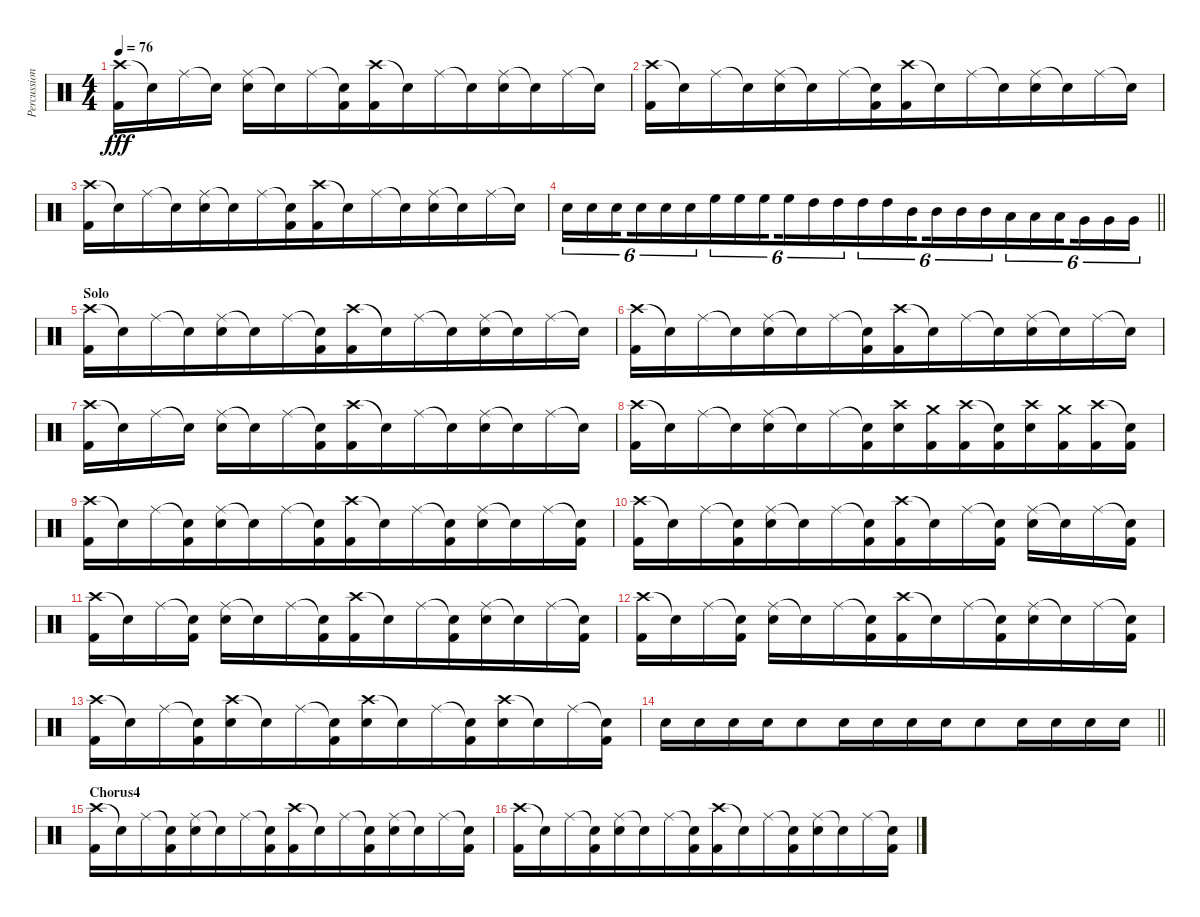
\track ("Percussion" "Percussion") {instrument percussion}
\staff {score}
\articulation defaults
\ts (4 4)
\tempo 76
\clef neutral
\ks c
("Crash high (hit)" "Kick (hit) 2").16{dy fff beam merge} "Snare (hit)"{t}.16{beam merge} "Ride (middle)".16{beam merge} "Snare (hit)"{t}.16 ("Ride (middle)" "Snare (hit) 2").16{beam merge} "Snare (hit)"{t}.16{beam merge} "Ride (middle)".16{beam merge} ("Snare (hit)"{t} "Kick (hit) 2").16{beam merge} ("Crash high (hit)" "Kick (hit) 2").16 "Snare (hit)"{t}.16{beam merge} "Ride (middle)".16{beam merge} "Snare (hit)"{t}.16{beam merge} ("Ride (middle)" "Snare (hit) 2").16{beam merge} "Snare (hit)"{t}.16{beam merge} "Ride (middle)".16{beam merge} "Snare (hit)"{t}.16 |
("Crash high (hit)" "Kick (hit) 2").16{beam merge} "Snare (hit)"{t}.16 "Ride (middle)".16{beam merge} "Snare (hit)"{t}.16{beam merge} ("Ride (middle)" "Snare (hit) 2").16{beam merge} "Snare (hit)"{t}.16{beam merge} "Ride (middle)".16{beam merge} ("Snare (hit)"{t} "Kick (hit) 2").16{beam merge} ("Crash high (hit)" "Kick (hit) 2").16{beam merge} "Snare (hit)"{t}.16 "Ride (middle)".16{beam merge} "Snare (hit)"{t}.16{beam merge} ("Ride (middle)" "Snare (hit) 2").16{beam merge} "Snare (hit)"{t}.16 "Ride (middle)".16 "Snare (hit)"{t}.16 |
("Crash high (hit)" "Kick (hit) 2").16{beam merge} "Snare (hit)"{t}.16{beam merge} "Ride (middle)".16 "Snare (hit)"{t}.16{beam merge} ("Ride (middle)" "Snare (hit) 2").16{beam merge} "Snare (hit)"{t}.16{beam merge} "Ride (middle)".16{beam merge} ("Snare (hit)"{t} "Kick (hit) 2").16{beam merge} ("Crash high (hit)" "Kick (hit) 2").16{beam merge} "Snare (hit)"{t}.16{beam merge} "Ride (middle)".16{beam merge} "Snare (hit)"{t}.16{beam merge} ("Ride (middle)" "Snare (hit) 2").16{beam merge} "Snare (hit)"{t}.16{beam merge} "Ride (middle)".16{beam merge} "Snare (hit)"{t}.16 |
\barLineRight lightlight "Snare (hit) 2".16{tu (6 4)} "Snare (hit) 2".16{tu (6 4) beam merge} "Snare (hit) 2".16{tu (6 4) beam splitsecondary} "Snare (hit) 2".16{tu (6 4) beam merge} "Snare (hit) 2".16{tu (6 4) beam merge} "Snare (hit) 2".16{tu (6 4) beam merge} "High Floor Tom (hit)".16{tu (6 4) beam merge} "High Floor Tom (hit)".16{tu (6 4) beam merge} "High Floor Tom (hit)".16{tu (6 4) beam splitsecondary} "High Floor Tom (hit)".16{tu (6 4) beam merge} "High Tom (hit)".16{tu (6 4) beam merge} "High Tom (hit)".16{tu (6 4) beam merge} "High Tom (hit)".16{tu (6 4) beam merge} "High Tom (hit)".16{tu (6 4) beam merge} "Mid Tom (hit)".16{tu (6 4) beam splitsecondary} "Mid Tom (hit)".16{tu (6 4) beam merge} "Mid Tom (hit)".16{tu (6 4) beam merge} "Mid Tom (hit)".16{tu (6 4) beam merge} "Low Tom (hit)".16{tu (6 4) beam merge} "Low Tom (hit)".16{tu (6 4) beam merge} "Low Tom (hit)".16{tu (6 4) beam splitsecondary} "Very Low Tom (hit)".16{tu (6 4) beam merge} "Very Low Tom (hit)".16{tu (6 4) beam merge} "Very Low Tom (hit)".16{tu (6 4)}
|
\section ("" "Solo")
("Crash high (hit)" "Kick (hit) 2").16{beam merge} "Snare (hit)"{t}.16{beam merge} "Ride (middle)".16{beam merge} "Snare (hit)"{t}.16{beam merge} ("Ride (middle)" "Snare (hit) 2").16{beam merge} "Snare (hit)"{t}.16{beam merge} "Ride (middle)".16{beam merge} ("Snare (hit)"{t} "Kick (hit) 2").16{beam merge} ("Crash high (hit)" "Kick (hit) 2").16{beam merge} "Snare (hit)"{t}.16{beam merge} "Ride (middle)".16{beam merge} "Snare (hit)"{t}.16{beam merge} ("Ride (middle)" "Snare (hit) 2").16{beam merge} "Snare (hit)"{t}.16{beam merge} "Ride (middle)".16{beam merge} "Snare (hit)"{t}.16 |
("Crash high (hit)" "Kick (hit) 2").16{beam merge} "Snare (hit)"{t}.16{beam merge} "Ride (middle)".16{beam merge} "Snare (hit)"{t}.16{beam merge} ("Ride (middle)" "Snare (hit) 2").16{beam merge} "Snare (hit)"{t}.16{beam merge} "Ride (middle)".16{beam merge} ("Snare (hit)"{t} "Kick (hit) 2").16{beam merge} ("Crash high (hit)" "Kick (hit) 2").16{beam merge} "Snare (hit)"{t}.16{beam merge} "Ride (middle)".16{beam merge} "Snare (hit)"{t}.16{beam merge} ("Ride (middle)" "Snare (hit) 2").16{beam merge} "Snare (hit)"{t}.16{beam merge} "Ride (middle)".16{beam merge} "Snare (hit)"{t}.16 |
("Crash high (hit)" "Kick (hit) 2").16{beam merge} "Snare (hit)"{t}.16{beam merge} "Ride (middle)".16{beam merge} "Snare (hit)"{t}.16 ("Ride (middle)" "Snare (hit) 2").16{beam merge} "Snare (hit)"{t}.16{beam merge} "Ride (middle)".16{beam merge} ("Snare (hit)"{t} "Kick (hit) 2").16{beam merge} ("Crash high (hit)" "Kick (hit) 2").16{beam merge} "Snare (hit)"{t}.16{beam merge} "Ride (middle)".16{beam merge} "Snare (hit)"{t}.16{beam merge} ("Ride (middle)" "Snare (hit) 2").16 "Snare (hit)"{t}.16{beam merge} "Ride (middle)".16{beam merge} "Snare (hit)"{t}.16 |
("Crash high (hit)" "Kick (hit) 2").16{beam merge} "Snare (hit)"{t}.16{beam merge} "Ride (middle)".16{beam merge} "Snare (hit)"{t}.16{beam merge} ("Ride (middle)" "Snare (hit) 2").16{beam merge} "Snare (hit)"{t}.16{beam merge} "Ride (middle)".16 ("Snare (hit)"{t} "Kick (hit) 2").16{beam merge} ("Crash high (hit)" "Snare (hit) 2").16{beam merge} ("Crash medium (hit)" "Kick (hit) 2").16 ("Crash high (hit)" "Kick (hit) 2").16{beam merge} ("Snare (hit)"{t} "Kick (hit) 2").16{beam merge} ("Crash high (hit)" "Snare (hit) 2").16{beam merge} ("Crash medium (hit)" "Kick (hit) 2").16{beam merge} ("Crash high (hit)" "Kick (hit) 2").16{beam merge} ("Snare (hit)"{t} "Kick (hit) 2").16 |
("Crash high (hit)" "Kick (hit) 2").16{beam merge} "Snare (hit)"{t}.16 "Ride (middle)".16 ("Snare (hit)"{t} "Kick (hit) 2").16{beam merge} ("Ride (middle)" "Snare (hit) 2").16{beam merge} "Snare (hit)"{t}.16{beam merge} "Ride (middle)".16{beam merge} ("Snare (hit)"{t} "Kick (hit) 2").16{beam merge} ("Crash high (hit)" "Kick (hit) 2").16{beam merge} "Snare (hit)"{t}.16{beam merge} "Ride (middle)".16{beam merge} ("Snare (hit)"{t} "Kick (hit) 2").16{beam merge} ("Ride (middle)" "Snare (hit) 2").16{beam merge} "Snare (hit)"{t}.16 "Ride (middle)".16{beam merge} ("Snare (hit)"{t} "Kick (hit) 2").16 |
("Crash high (hit)" "Kick (hit) 2").16{beam merge} "Snare (hit)"{t}.16{beam merge} "Ride (middle)".16{beam merge} ("Snare (hit)"{t} "Kick (hit) 2").16{beam merge} ("Ride (middle)" "Snare (hit) 2").16{beam merge} "Snare (hit)"{t}.16{beam merge} "Ride (middle)".16{beam merge} ("Snare (hit)"{t} "Kick (hit) 2").16{beam merge} ("Crash high (hit)" "Kick (hit) 2").16{beam merge} "Snare (hit)"{t}.16{beam merge} "Ride (middle)".16{beam merge} ("Snare (hit)"{t} "Kick (hit) 2").16 ("Ride (middle)" "Snare (hit) 2").16{beam merge} "Snare (hit)"{t}.16{beam merge} "Ride (middle)".16{beam merge} ("Snare (hit)"{t} "Kick (hit) 2").16 |
("Crash high (hit)" "Kick (hit) 2").16{beam merge} "Snare (hit)"{t}.16{beam merge} "Ride (middle)".16{beam merge} ("Snare (hit)"{t} "Kick (hit) 2").16 ("Ride (middle)" "Snare (hit) 2").16{beam merge} "Snare (hit)"{t}.16{beam merge} "Ride (middle)".16{beam merge} ("Snare (hit)"{t} "Kick (hit) 2").16{beam merge} ("Crash high (hit)" "Kick (hit) 2").16{beam merge} "Snare (hit)"{t}.16{beam merge} "Ride (middle)".16{beam merge} ("Snare (hit)"{t} "Kick (hit) 2").16{beam merge} ("Ride (middle)" "Snare (hit) 2").16{beam merge} "Snare (hit)"{t}.16{beam merge} "Ride (middle)".16{beam merge} ("Snare (hit)"{t} "Kick (hit) 2").16 |
("Crash high (hit)" "Kick (hit) 2").16{beam merge} "Snare (hit)"{t}.16{beam merge} "Ride (middle)".16{beam merge} ("Snare (hit)"{t} "Kick (hit) 2").16 ("Ride (middle)" "Snare (hit) 2").16{beam merge} "Snare (hit)"{t}.16{beam merge} "Ride (middle)".16{beam merge} ("Snare (hit)"{t} "Kick (hit) 2").16{beam merge} ("Crash high (hit)" "Kick (hit) 2").16{beam merge} "Snare (hit)"{t}.16{beam merge} "Ride (middle)".16{beam merge} ("Snare (hit)"{t} "Kick (hit) 2").16{beam merge} ("Ride (middle)" "Snare (hit) 2").16 "Snare (hit)"{t}.16{beam merge} "Ride (middle)".16{beam merge} ("Snare (hit)"{t} "Kick (hit) 2").16 |
("Crash high (hit)" "Kick (hit) 2").16{beam merge} "Snare (hit)"{t}.16{beam merge} "Ride (middle)".16{beam merge} ("Snare (hit)"{t} "Kick (hit) 2").16{beam merge} ("Crash high (hit)" "Snare (hit) 2").16{beam merge} "Snare (hit)"{t}.16{beam merge} "Ride (middle)".16{beam merge} ("Snare (hit)"{t} "Kick (hit) 2").16{beam merge} ("Crash high (hit)" "Snare (hit) 2").16{beam merge} "Snare (hit)"{t}.16{beam merge} "Ride (middle)".16{beam merge} ("Snare (hit)"{t} "Kick (hit) 2").16{beam merge} ("Crash high (hit)" "Snare (hit) 2").16{beam merge} "Snare (hit)"{t}.16{beam merge} "Ride (middle)".16{beam merge} ("Snare (hit)"{t} "Kick (hit) 2").16 |
\barLineRight lightlight "Snare (hit) 2".16{beam merge} "Snare (hit) 2".16{beam merge} "Snare (hit) 2".16{beam merge} "Snare (hit) 2".16{beam merge} "Snare (hit) 2".8{beam merge} "Snare (hit) 2".16{beam merge} "Snare (hit) 2".16{beam merge} "Snare (hit) 2".16{beam merge} "Snare (hit) 2".16{beam merge} "Snare (hit) 2".8{beam merge} "Snare (hit) 2".16{beam merge} "Snare (hit) 2".16{beam merge} "Snare (hit) 2".16{beam merge} "Snare (hit) 2".16
|
\section ("" "Chorus4")
("Crash high (hit)" "Kick (hit) 2").16{beam merge} "Snare (hit)"{t}.16{beam merge} "Ride (middle)".16 ("Snare (hit)"{t} "Kick (hit) 2").16{beam merge} ("Ride (middle)" "Snare (hit) 2").16{beam merge} "Snare (hit)"{t}.16{beam merge} "Ride (middle)".16{beam merge} ("Snare (hit)"{t} "Kick (hit) 2").16{beam merge} ("Crash high (hit)" "Kick (hit) 2").16{beam merge} "Snare (hit)"{t}.16{beam merge} "Ride (middle)".16{beam merge} ("Snare (hit)"{t} "Kick (hit) 2").16{beam merge} ("Ride (middle)" "Snare (hit) 2").16{beam merge} "Snare (hit)"{t}.16{beam merge} "Ride (middle)".16{beam merge} ("Snare (hit)"{t} "Kick (hit) 2").16 |
("Crash high (hit)" "Kick (hit) 2").16{beam merge} "Snare (hit)"{t}.16{beam merge} "Ride (middle)".16{beam merge} ("Snare (hit)"{t} "Kick (hit) 2").16{beam merge} ("Ride (middle)" "Snare (hit) 2").16{beam merge} "Snare (hit)"{t}.16{beam merge} "Ride (middle)".16{beam merge} ("Snare (hit)"{t} "Kick (hit) 2").16{beam merge} ("Crash high (hit)" "Kick (hit) 2").16{beam merge} "Snare (hit)"{t}.16{beam merge} "Ride (middle)".16{beam merge} ("Snare (hit)"{t} "Kick (hit) 2").16{beam merge} ("Ride (middle)" "Snare (hit) 2").16 "Snare (hit)"{t}.16{beam merge} "Ride (middle)".16{beam merge} ("Snare (hit)"{t} "Kick (hit) 2").16
